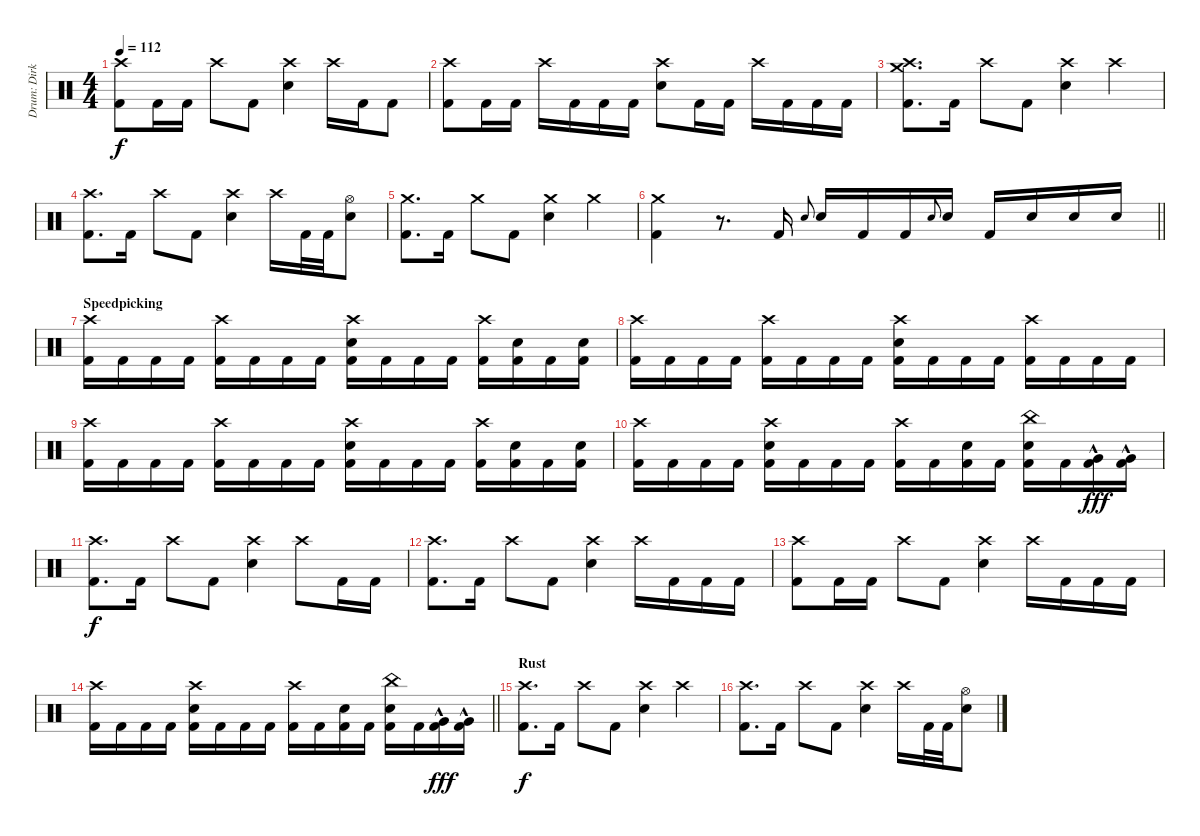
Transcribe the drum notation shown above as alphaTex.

\track ("Drum: Dirk" "Drum: Dirk") {instrument percussion}
\staff {score}
\articulation defaults
\ts (4 4)
\tempo 112
\clef neutral
\ks c
("Crash high (hit)" "Kick (hit) 2").8{dy f} "Kick (hit) 2".16 "Kick (hit) 2".16 "Crash high (hit)".8 "Kick (hit) 2".8 ("Crash high (hit)" "Electric Snare (hit)").4 "Crash high (hit)".16 "Kick (hit) 2".16 "Kick (hit) 2".8 |
("Crash high (hit)" "Kick (hit) 2").8 "Kick (hit) 2".16 "Kick (hit) 2".16 "Crash high (hit)".16 "Kick (hit) 2".16 "Kick (hit) 2".16 "Kick (hit) 2".16 ("Crash high (hit)" "Electric Snare (hit)").8 "Kick (hit) 2".16 "Kick (hit) 2".16 "Crash high (hit)".16 "Kick (hit) 2".16 "Kick (hit) 2".16 "Kick (hit) 2".16 |
("Crash high (hit)" "Crash medium (hit)" "Kick (hit) 2").8{d} "Kick (hit) 2".16 "Crash high (hit)".8 "Kick (hit) 2".8 ("Crash high (hit)" "Electric Snare (hit)").4 "Crash high (hit)".4 |
("Crash high (hit)" "Kick (hit) 2").8{d} "Kick (hit) 2".16 "Crash high (hit)".8 "Kick (hit) 2".8 ("Crash high (hit)" "Electric Snare (hit)").4 "Crash high (hit)".16 "Kick (hit) 2".32 "Kick (hit) 2".32 ("Hi-Hat (open)" "Electric Snare (hit)").8 |
("Crash medium (hit)" "Kick (hit) 2").8{d} "Kick (hit) 2".16 "Crash medium (hit)".8 "Kick (hit) 2".8 ("Crash medium (hit)" "Electric Snare (hit)").4 "Crash medium (hit)".4 |
\barLineRight lightlight
("Crash medium (hit)" "Kick (hit) 2").4 r.8{d} "Kick (hit) 2".16 "Electric Snare (hit)".8{gr onbeat} "Electric Snare (hit)".16 "Kick (hit) 2".16 "Kick (hit) 2".16 "Electric Snare (hit)".8{gr onbeat} "Electric Snare (hit)".16 "Kick (hit) 2".16 "Electric Snare (hit)".16 "Electric Snare (hit)".16 "Electric Snare (hit)".16 |
\section ("" "Speedpicking")
("Crash high (hit)" "Kick (hit) 2").16 "Kick (hit) 2".16 "Kick (hit) 2".16 "Kick (hit) 2".16 ("Crash high (hit)" "Kick (hit) 2").16 "Kick (hit) 2".16 "Kick (hit) 2".16 "Kick (hit) 2".16 ("Crash high (hit)" "Electric Snare (hit)" "Kick (hit) 2").16 "Kick (hit) 2".16 "Kick (hit) 2".16 "Kick (hit) 2".16 ("Crash high (hit)" "Kick (hit) 2").16 ("Electric Snare (hit)" "Kick (hit) 2").16 "Kick (hit) 2".16 ("Electric Snare (hit)" "Kick (hit) 2").16 |
("Crash high (hit)" "Kick (hit) 2").16 "Kick (hit) 2".16 "Kick (hit) 2".16 "Kick (hit) 2".16 ("Crash high (hit)" "Kick (hit) 2").16 "Kick (hit) 2".16 "Kick (hit) 2".16 "Kick (hit) 2".16 ("Crash high (hit)" "Electric Snare (hit)" "Kick (hit) 2").16 "Kick (hit) 2".16 "Kick (hit) 2".16 "Kick (hit) 2".16 ("Crash high (hit)" "Kick (hit) 2").16 "Kick (hit) 2".16 "Kick (hit) 2".16 "Kick (hit) 2".16 |
("Crash high (hit)" "Kick (hit) 2").16 "Kick (hit) 2".16 "Kick (hit) 2".16 "Kick (hit) 2".16 ("Crash high (hit)" "Kick (hit) 2").16 "Kick (hit) 2".16 "Kick (hit) 2".16 "Kick (hit) 2".16 ("Crash high (hit)" "Electric Snare (hit)" "Kick (hit) 2").16 "Kick (hit) 2".16 "Kick (hit) 2".16 "Kick (hit) 2".16 ("Crash high (hit)" "Kick (hit) 2").16 ("Electric Snare (hit)" "Kick (hit) 2").16 "Kick (hit) 2".16 ("Electric Snare (hit)" "Kick (hit) 2").16 |
("Crash high (hit)" "Kick (hit) 2").16 "Kick (hit) 2".16 "Kick (hit) 2".16 "Kick (hit) 2".16 ("Crash high (hit)" "Electric Snare (hit)" "Kick (hit) 2").16 "Kick (hit) 2".16 "Kick (hit) 2".16 "Kick (hit) 2".16 ("Crash high (hit)" "Kick (hit) 2").16 "Kick (hit) 2".16 ("Electric Snare (hit)" "Kick (hit) 2").16 "Kick (hit) 2".16 ("China (hit)" "Electric Snare (hit)" "Kick (hit) 2").16 "Kick (hit) 2".16 ("Very Low Tom (hit)"{hac} "Kick (hit) 2").16{dy fff} ("Very Low Tom (hit)"{hac} "Kick (hit) 2").16 |
("Crash high (hit)" "Kick (hit) 2").8{d dy f} "Kick (hit) 2".16 "Crash high (hit)".8 "Kick (hit) 2".8 ("Crash high (hit)" "Electric Snare (hit)").4 "Crash high (hit)".8 "Kick (hit) 2".16 "Kick (hit) 2".16 |
("Crash high (hit)" "Kick (hit) 2").8{d} "Kick (hit) 2".16 "Crash high (hit)".8 "Kick (hit) 2".8 ("Crash high (hit)" "Electric Snare (hit)").4 "Crash high (hit)".16 "Kick (hit) 2".16 "Kick (hit) 2".16 "Kick (hit) 2".16 |
("Crash high (hit)" "Kick (hit) 2").8 "Kick (hit) 2".16 "Kick (hit) 2".16 "Crash high (hit)".8 "Kick (hit) 2".8 ("Crash high (hit)" "Electric Snare (hit)").4 "Crash high (hit)".16 "Kick (hit) 2".16 "Kick (hit) 2".16 "Kick (hit) 2".16 |
\barLineRight lightlight
("Crash high (hit)" "Kick (hit) 2").16 "Kick (hit) 2".16 "Kick (hit) 2".16 "Kick (hit) 2".16 ("Crash high (hit)" "Electric Snare (hit)" "Kick (hit) 2").16 "Kick (hit) 2".16 "Kick (hit) 2".16 "Kick (hit) 2".16 ("Crash high (hit)" "Kick (hit) 2").16 "Kick (hit) 2".16 ("Electric Snare (hit)" "Kick (hit) 2").16 "Kick (hit) 2".16 ("China (hit)" "Electric Snare (hit)" "Kick (hit) 2").16 "Kick (hit) 2".16 ("Very Low Tom (hit)"{hac} "Kick (hit) 2").16{dy fff} ("Very Low Tom (hit)"{hac} "Kick (hit) 2").16 |
\section ("" "Rust")
("Crash high (hit)" "Kick (hit) 2").8{d dy f} "Kick (hit) 2".16 "Crash high (hit)".8 "Kick (hit) 2".8 ("Crash high (hit)" "Electric Snare (hit)").4 "Crash high (hit)".4 |
("Crash high (hit)" "Kick (hit) 2").8{d} "Kick (hit) 2".16 "Crash high (hit)".8 "Kick (hit) 2".8 ("Crash high (hit)" "Electric Snare (hit)").4 "Crash high (hit)".16 "Kick (hit) 2".32 "Kick (hit) 2".32 ("Hi-Hat (open)" "Electric Snare (hit)").8
